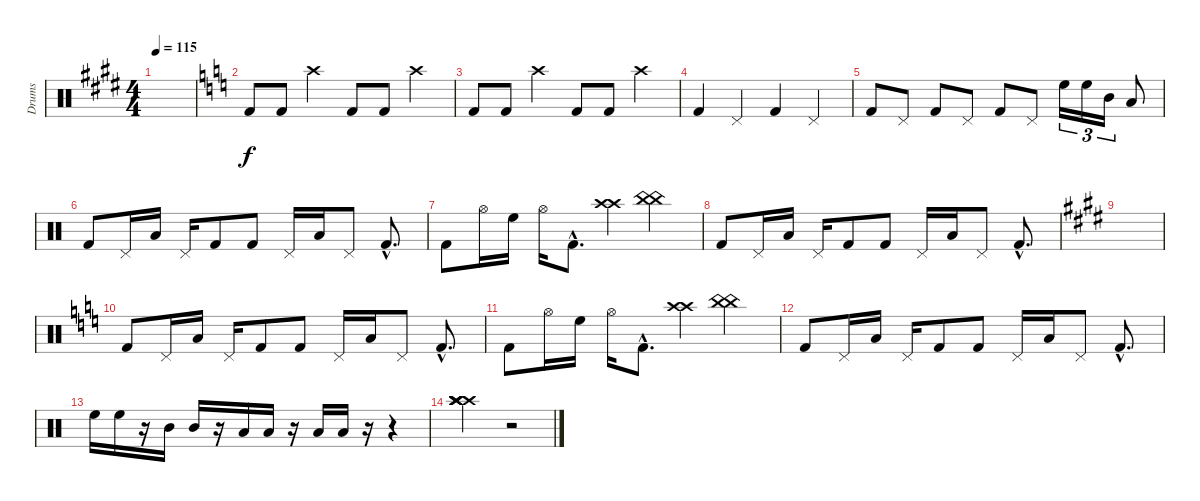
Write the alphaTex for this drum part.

\track ("Drums" "Drums") {instrument percussion}
\staff {score}
\articulation defaults
\ts (4 4)
\tempo 115
\clef neutral
\ks e
|
\ks c "Kick (hit) 2".8 "Kick (hit) 2".8 "Crash high (hit)".4 "Kick (hit) 2".8 "Kick (hit) 2".8 "Crash high (hit)".4
|
"Kick (hit) 2".8 "Kick (hit) 2".8 "Crash high (hit)".4 "Kick (hit) 2".8 "Kick (hit) 2".8 "Crash high (hit)".4 |
"Kick (hit) 2".4 "Pedal Hi-Hat (hit)".4 "Kick (hit) 2".4 "Pedal Hi-Hat (hit)".4 |
"Kick (hit) 2".8 "Pedal Hi-Hat (hit)".8 "Kick (hit) 2".8 "Pedal Hi-Hat (hit)".8 "Kick (hit) 2".8 "Pedal Hi-Hat (hit)".8 "High Floor Tom (hit)".16{tu (3 2)} "High Floor Tom (hit)".16{tu (3 2)} "Mid Tom (hit)".16{tu (3 2)} "Low Floor Tom (hit)".8 |
"Kick (hit) 2".8 "Pedal Hi-Hat (hit)".16 "Low Tom (hit)".16 "Pedal Hi-Hat (hit)".16 "Kick (hit) 2".8 "Kick (hit) 2".8 "Pedal Hi-Hat (hit)".16 "Low Tom (hit)".16 "Pedal Hi-Hat (hit)".8 "Kick (hit) 2"{hac}.8{d} |
"Kick (hit) 2".8 "Hi-Hat (open)".16 "High Floor Tom (hit)".16 "Hi-Hat (open)".16 "Kick (hit) 2"{hac}.8{d} ("Crash high (hit)" "Crash high (hit)").4 ("China (hit)" "China (hit)").4 |
"Kick (hit) 2".8 "Pedal Hi-Hat (hit)".16 "Low Tom (hit)".16 "Pedal Hi-Hat (hit)".16 "Kick (hit) 2".8 "Kick (hit) 2".8 "Pedal Hi-Hat (hit)".16 "Low Tom (hit)".16 "Pedal Hi-Hat (hit)".8 "Kick (hit) 2"{hac}.8{d} |
\ks e
|
\ks c "Kick (hit) 2".8 "Pedal Hi-Hat (hit)".16 "Low Tom (hit)".16 "Pedal Hi-Hat (hit)".16 "Kick (hit) 2".8 "Kick (hit) 2".8 "Pedal Hi-Hat (hit)".16 "Low Tom (hit)".16 "Pedal Hi-Hat (hit)".8 "Kick (hit) 2"{hac}.8{d}
|
"Kick (hit) 2".8 "Hi-Hat (open)".16 "High Floor Tom (hit)".16 "Hi-Hat (open)".16 "Kick (hit) 2"{hac}.8{d} ("Crash high (hit)" "Crash high (hit)").4 ("China (hit)" "China (hit)").4 |
"Kick (hit) 2".8 "Pedal Hi-Hat (hit)".16 "Low Tom (hit)".16 "Pedal Hi-Hat (hit)".16 "Kick (hit) 2".8 "Kick (hit) 2".8 "Pedal Hi-Hat (hit)".16 "Low Tom (hit)".16 "Pedal Hi-Hat (hit)".8 "Kick (hit) 2"{hac}.8{d} |
"High Floor Tom (hit)".16 "High Floor Tom (hit)".16 r.16 "Mid Tom (hit)".16 "Mid Tom (hit)".16 r.16 "Low Tom (hit)".16 "Low Tom (hit)".16 r.16 "Low Floor Tom (hit)".16 "Low Floor Tom (hit)".16 r.16 r.4 |
("Crash high (hit)" "Crash high (hit)" "Crash high (hit)" "Crash high (hit)" "Crash high (hit)" "Crash high (hit)").2 r.2
